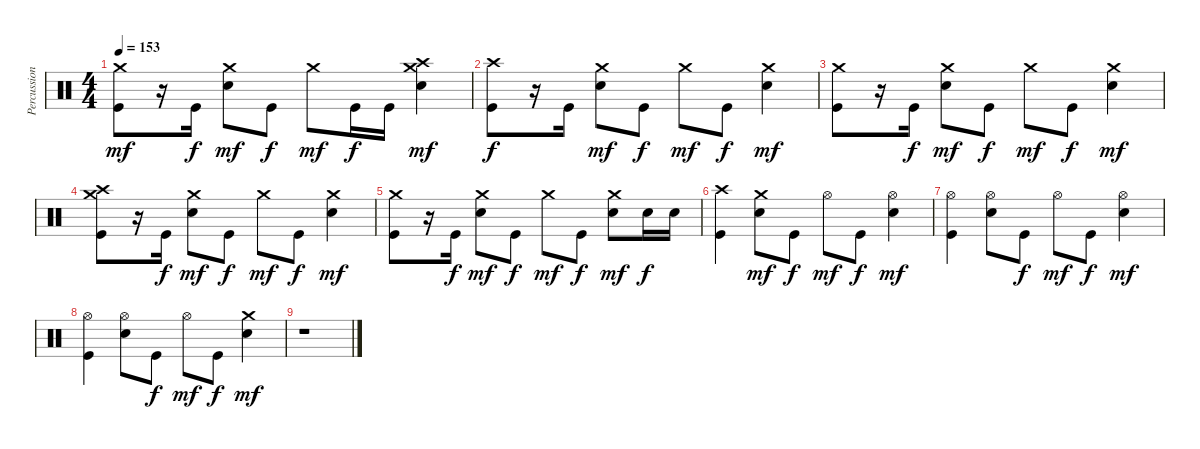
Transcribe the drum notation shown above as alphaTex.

\track ("Percussions" "Percussion") {instrument percussion}
\staff {score}
\articulation defaults
\ts (4 4)
\tempo 153
\clef neutral
\ks c
("Kick (hit)" "Crash medium (hit)").8{dy mf} r.16 "Kick (hit)".16{dy f} ("Electric Snare (hit)" "Crash medium (hit)").8{dy mf} "Kick (hit)".8{dy f} "Crash medium (hit)".8{dy mf} "Kick (hit)".16{dy f} "Kick (hit)".16 ("Electric Snare (hit)" "Crash medium (hit)" "Crash high (hit)").4{dy mf} |
("Kick (hit)" "Crash high (hit)").8{dy f} r.16 "Kick (hit)".16 ("Electric Snare (hit)" "Crash medium (hit)").8{dy mf} "Kick (hit)".8{dy f} "Crash medium (hit)".8{dy mf} "Kick (hit)".8{dy f} ("Electric Snare (hit)" "Crash medium (hit)").4{dy mf} |
("Kick (hit)" "Crash medium (hit)").8 r.16 "Kick (hit)".16{dy f} ("Electric Snare (hit)" "Crash medium (hit)").8{dy mf} "Kick (hit)".8{dy f} "Crash medium (hit)".8{dy mf} "Kick (hit)".8{dy f} ("Electric Snare (hit)" "Crash medium (hit)").4{dy mf} |
("Kick (hit)" "Crash medium (hit)" "Crash high (hit)").8 r.16 "Kick (hit)".16{dy f} ("Electric Snare (hit)" "Crash medium (hit)").8{dy mf} "Kick (hit)".8{dy f} "Crash medium (hit)".8{dy mf} "Kick (hit)".8{dy f} ("Electric Snare (hit)" "Crash medium (hit)").4{dy mf} |
("Kick (hit)" "Crash medium (hit)").8 r.16 "Kick (hit)".16{dy f} ("Electric Snare (hit)" "Crash medium (hit)").8{dy mf} "Kick (hit)".8{dy f} "Crash medium (hit)".8{dy mf} "Kick (hit)".8{dy f} ("Electric Snare (hit)" "Crash medium (hit)").8{dy mf} "Electric Snare (hit)".16{dy f} "Electric Snare (hit)".16 |
("Kick (hit)" "Crash high (hit)").4 ("Electric Snare (hit)" "Crash medium (hit)").8{dy mf} "Kick (hit)".8{dy f} "Hi-Hat (open)".8{dy mf} "Kick (hit)".8{dy f} ("Electric Snare (hit)" "Hi-Hat (open)").4{dy mf} |
("Kick (hit)" "Hi-Hat (open)").4 ("Electric Snare (hit)" "Hi-Hat (open)").8 "Kick (hit)".8{dy f} "Hi-Hat (open)".8{dy mf} "Kick (hit)".8{dy f} ("Electric Snare (hit)" "Hi-Hat (open)").4{dy mf} |
("Kick (hit)" "Hi-Hat (open)").4 ("Electric Snare (hit)" "Hi-Hat (open)").8 "Kick (hit)".8{dy f} "Hi-Hat (open)".8{dy mf} "Kick (hit)".8{dy f} ("Electric Snare (hit)" "Crash medium (hit)").4{dy mf} |
r.1
